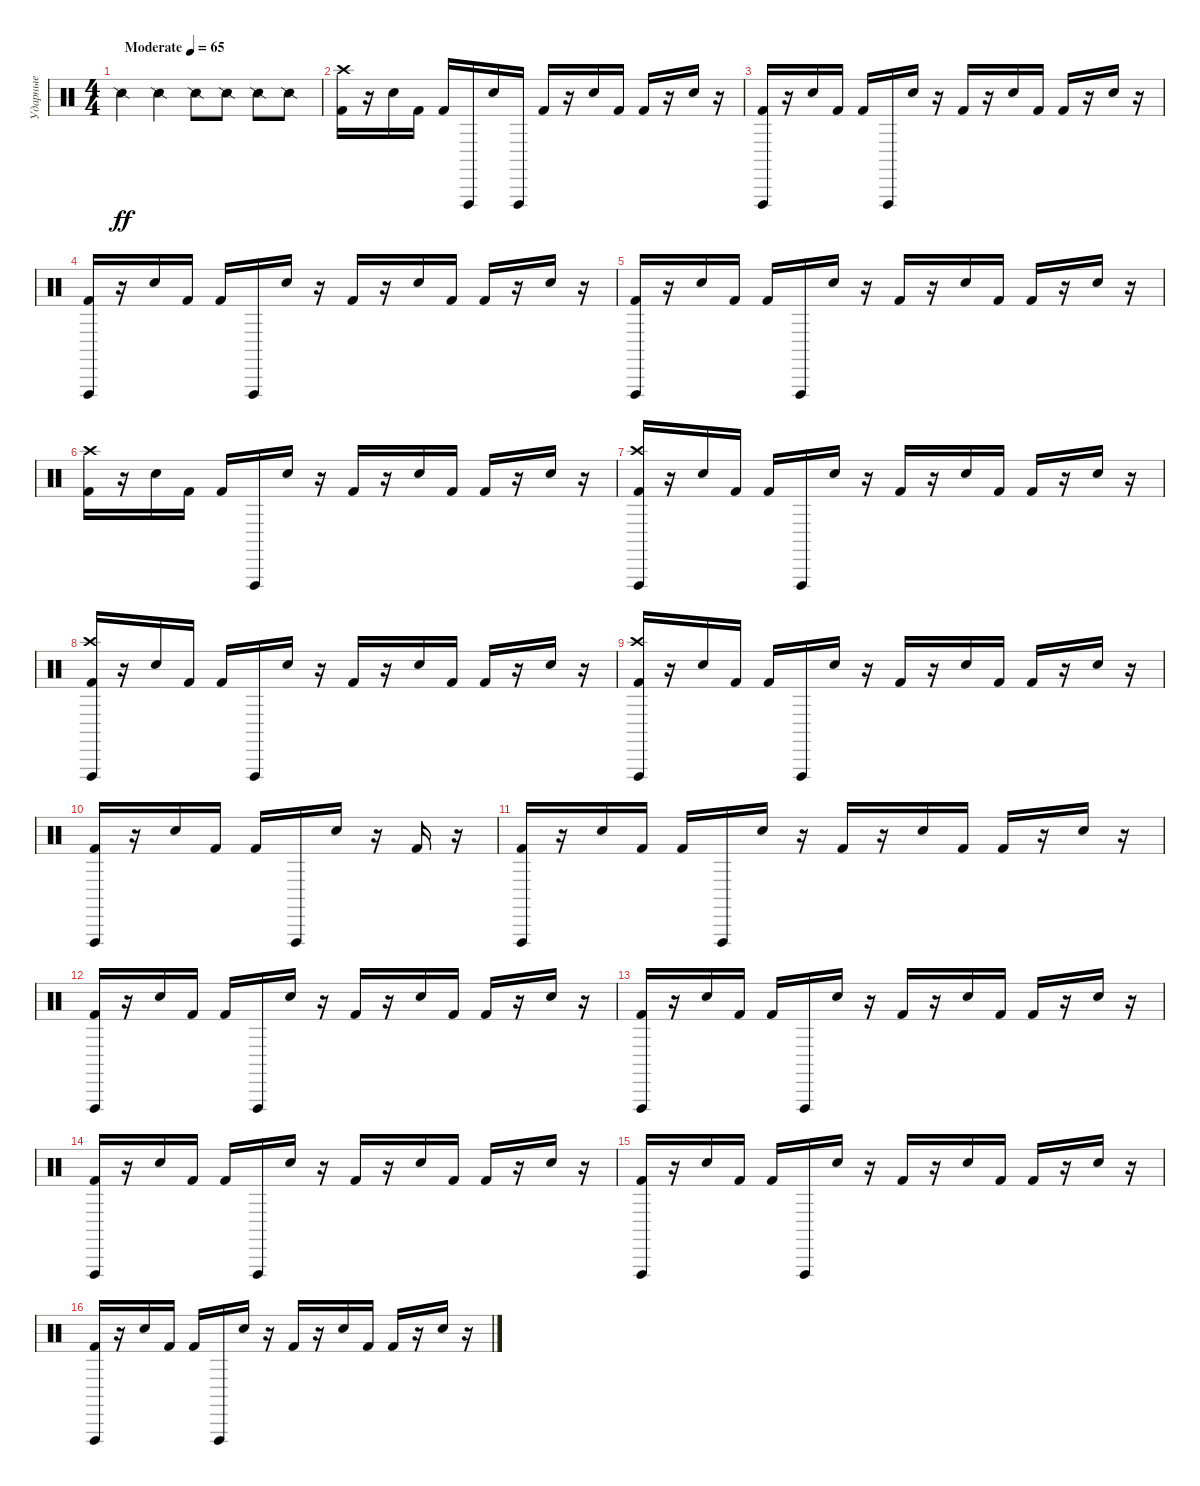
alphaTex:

\track ("Ударные" "Ударные") {instrument percussion}
\staff {score}
\articulation defaults
\ts (4 4)
\tempo (65 "Moderate")
\clef neutral
\ks c "Snare (side stick) 2".4{dy ff} "Snare (side stick) 2".4 "Snare (side stick) 2".8 "Snare (side stick) 2".8 "Snare (side stick) 2".8 "Snare (side stick) 2".8
|
("Kick (hit) 2" "Crash high (hit)").16 r.16 "Snare (hit) 2".16 "Kick (hit) 2".16 "Kick (hit) 2".16 "Vibraslap (hit)".16 "Snare (hit) 2".16 "Vibraslap (hit)".16 "Kick (hit) 2".16 r.16 "Snare (hit) 2".16 "Kick (hit) 2".16 "Kick (hit) 2".16 r.16 "Snare (hit) 2".16 r.16 |
("Kick (hit) 2" "Vibraslap (hit)").16 r.16 "Snare (hit) 2".16 "Kick (hit) 2".16 "Kick (hit) 2".16 "Vibraslap (hit)".16 "Snare (hit) 2".16 r.16 "Kick (hit) 2".16 r.16 "Snare (hit) 2".16 "Kick (hit) 2".16 "Kick (hit) 2".16 r.16 "Snare (hit) 2".16 r.16 |
("Kick (hit) 2" "Vibraslap (hit)").16 r.16 "Snare (hit) 2".16 "Kick (hit) 2".16 "Kick (hit) 2".16 "Vibraslap (hit)".16 "Snare (hit) 2".16 r.16 "Kick (hit) 2".16 r.16 "Snare (hit) 2".16 "Kick (hit) 2".16 "Kick (hit) 2".16 r.16 "Snare (hit) 2".16 r.16 |
("Kick (hit) 2" "Vibraslap (hit)").16 r.16 "Snare (hit) 2".16 "Kick (hit) 2".16 "Kick (hit) 2".16 "Vibraslap (hit)".16 "Snare (hit) 2".16 r.16 "Kick (hit) 2".16 r.16 "Snare (hit) 2".16 "Kick (hit) 2".16 "Kick (hit) 2".16 r.16 "Snare (hit) 2".16 r.16 |
("Kick (hit) 2" "Crash high (hit)").16 r.16 "Snare (hit) 2".16 "Kick (hit) 2".16 "Kick (hit) 2".16 "Vibraslap (hit)".16 "Snare (hit) 2".16 r.16 "Kick (hit) 2".16 r.16 "Snare (hit) 2".16 "Kick (hit) 2".16 "Kick (hit) 2".16 r.16 "Snare (hit) 2".16 r.16 |
("Kick (hit) 2" "Vibraslap (hit)" "Crash high (hit)").16 r.16 "Snare (hit) 2".16 "Kick (hit) 2".16 "Kick (hit) 2".16 "Vibraslap (hit)".16 "Snare (hit) 2".16 r.16 "Kick (hit) 2".16 r.16 "Snare (hit) 2".16 "Kick (hit) 2".16 "Kick (hit) 2".16 r.16 "Snare (hit) 2".16 r.16 |
("Kick (hit) 2" "Vibraslap (hit)" "Crash high (hit)").16 r.16 "Snare (hit) 2".16 "Kick (hit) 2".16 "Kick (hit) 2".16 "Vibraslap (hit)".16 "Snare (hit) 2".16 r.16 "Kick (hit) 2".16 r.16 "Snare (hit) 2".16 "Kick (hit) 2".16 "Kick (hit) 2".16 r.16 "Snare (hit) 2".16 r.16 |
("Kick (hit) 2" "Vibraslap (hit)" "Crash high (hit)").16 r.16 "Snare (hit) 2".16 "Kick (hit) 2".16 "Kick (hit) 2".16 "Vibraslap (hit)".16 "Snare (hit) 2".16 r.16 "Kick (hit) 2".16 r.16 "Snare (hit) 2".16 "Kick (hit) 2".16 "Kick (hit) 2".16 r.16 "Snare (hit) 2".16 r.16 |
("Kick (hit) 2" "Vibraslap (hit)").16 r.16 "Snare (hit) 2".16 "Kick (hit) 2".16 "Kick (hit) 2".16 "Vibraslap (hit)".16 "Snare (hit) 2".16 r.16 "Kick (hit) 2".16 r.16 |
("Kick (hit) 2" "Vibraslap (hit)").16 r.16 "Snare (hit) 2".16 "Kick (hit) 2".16 "Kick (hit) 2".16 "Vibraslap (hit)".16 "Snare (hit) 2".16 r.16 "Kick (hit) 2".16 r.16 "Snare (hit) 2".16 "Kick (hit) 2".16 "Kick (hit) 2".16 r.16 "Snare (hit) 2".16 r.16 |
("Kick (hit) 2" "Vibraslap (hit)").16 r.16 "Snare (hit) 2".16 "Kick (hit) 2".16 "Kick (hit) 2".16 "Vibraslap (hit)".16 "Snare (hit) 2".16 r.16 "Kick (hit) 2".16 r.16 "Snare (hit) 2".16 "Kick (hit) 2".16 "Kick (hit) 2".16 r.16 "Snare (hit) 2".16 r.16 |
("Kick (hit) 2" "Vibraslap (hit)").16 r.16 "Snare (hit) 2".16 "Kick (hit) 2".16 "Kick (hit) 2".16 "Vibraslap (hit)".16 "Snare (hit) 2".16 r.16 "Kick (hit) 2".16 r.16 "Snare (hit) 2".16 "Kick (hit) 2".16 "Kick (hit) 2".16 r.16 "Snare (hit) 2".16 r.16 |
("Kick (hit) 2" "Vibraslap (hit)").16 r.16 "Snare (hit) 2".16 "Kick (hit) 2".16 "Kick (hit) 2".16 "Vibraslap (hit)".16 "Snare (hit) 2".16 r.16 "Kick (hit) 2".16 r.16 "Snare (hit) 2".16 "Kick (hit) 2".16 "Kick (hit) 2".16 r.16 "Snare (hit) 2".16 r.16 |
("Kick (hit) 2" "Vibraslap (hit)").16 r.16 "Snare (hit) 2".16 "Kick (hit) 2".16 "Kick (hit) 2".16 "Vibraslap (hit)".16 "Snare (hit) 2".16 r.16 "Kick (hit) 2".16 r.16 "Snare (hit) 2".16 "Kick (hit) 2".16 "Kick (hit) 2".16 r.16 "Snare (hit) 2".16 r.16 |
("Kick (hit) 2" "Vibraslap (hit)").16 r.16 "Snare (hit) 2".16 "Kick (hit) 2".16 "Kick (hit) 2".16 "Vibraslap (hit)".16 "Snare (hit) 2".16 r.16 "Kick (hit) 2".16 r.16 "Snare (hit) 2".16 "Kick (hit) 2".16 "Kick (hit) 2".16 r.16 "Snare (hit) 2".16 r.16
